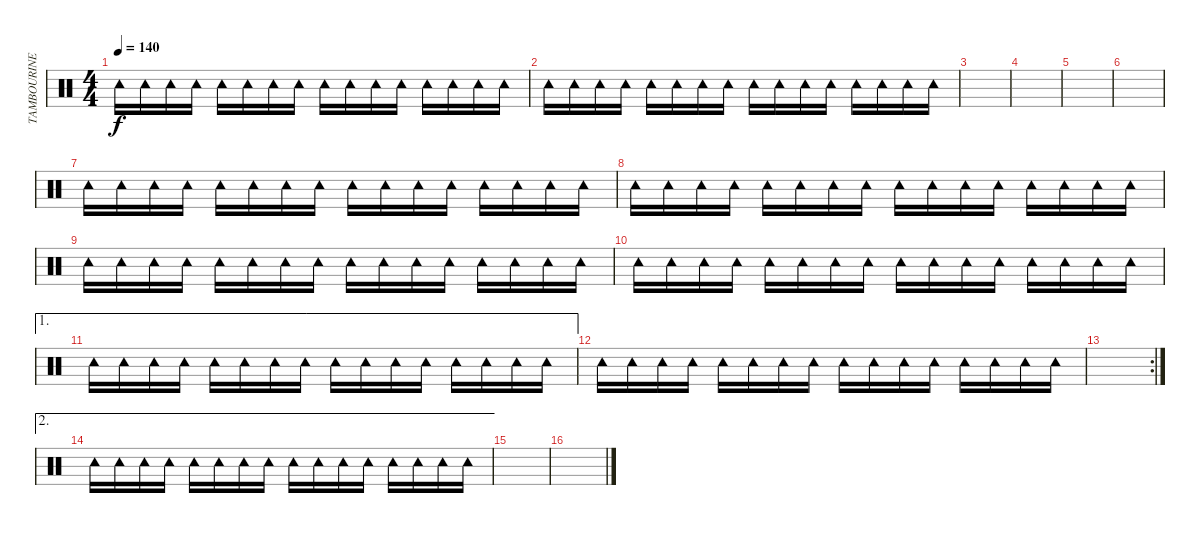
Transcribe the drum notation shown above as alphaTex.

\track ("TAMBOURINE" "TAMBOURINE") {instrument percussion}
\staff {score}
\articulation defaults
\ts (4 4)
\tempo 140
\clef neutral
\ks c "Tambourine (hit)".16{dy f} "Tambourine (hit)".16 "Tambourine (hit)".16 "Tambourine (hit)".16 "Tambourine (hit)".16 "Tambourine (hit)".16 "Tambourine (hit)".16 "Tambourine (hit)".16 "Tambourine (hit)".16 "Tambourine (hit)".16 "Tambourine (hit)".16 "Tambourine (hit)".16 "Tambourine (hit)".16 "Tambourine (hit)".16 "Tambourine (hit)".16 "Tambourine (hit)".16
|
"Tambourine (hit)".16 "Tambourine (hit)".16 "Tambourine (hit)".16 "Tambourine (hit)".16 "Tambourine (hit)".16 "Tambourine (hit)".16 "Tambourine (hit)".16 "Tambourine (hit)".16 "Tambourine (hit)".16 "Tambourine (hit)".16 "Tambourine (hit)".16 "Tambourine (hit)".16 "Tambourine (hit)".16 "Tambourine (hit)".16 "Tambourine (hit)".16 "Tambourine (hit)".16 |
|
|
|
|
"Tambourine (hit)".16 "Tambourine (hit)".16 "Tambourine (hit)".16 "Tambourine (hit)".16 "Tambourine (hit)".16 "Tambourine (hit)".16 "Tambourine (hit)".16 "Tambourine (hit)".16 "Tambourine (hit)".16 "Tambourine (hit)".16 "Tambourine (hit)".16 "Tambourine (hit)".16 "Tambourine (hit)".16 "Tambourine (hit)".16 "Tambourine (hit)".16 "Tambourine (hit)".16 |
"Tambourine (hit)".16 "Tambourine (hit)".16 "Tambourine (hit)".16 "Tambourine (hit)".16 "Tambourine (hit)".16 "Tambourine (hit)".16 "Tambourine (hit)".16 "Tambourine (hit)".16 "Tambourine (hit)".16 "Tambourine (hit)".16 "Tambourine (hit)".16 "Tambourine (hit)".16 "Tambourine (hit)".16 "Tambourine (hit)".16 "Tambourine (hit)".16 "Tambourine (hit)".16 |
"Tambourine (hit)".16 "Tambourine (hit)".16 "Tambourine (hit)".16 "Tambourine (hit)".16 "Tambourine (hit)".16 "Tambourine (hit)".16 "Tambourine (hit)".16 "Tambourine (hit)".16 "Tambourine (hit)".16 "Tambourine (hit)".16 "Tambourine (hit)".16 "Tambourine (hit)".16 "Tambourine (hit)".16 "Tambourine (hit)".16 "Tambourine (hit)".16 "Tambourine (hit)".16 |
"Tambourine (hit)".16 "Tambourine (hit)".16 "Tambourine (hit)".16 "Tambourine (hit)".16 "Tambourine (hit)".16 "Tambourine (hit)".16 "Tambourine (hit)".16 "Tambourine (hit)".16 "Tambourine (hit)".16 "Tambourine (hit)".16 "Tambourine (hit)".16 "Tambourine (hit)".16 "Tambourine (hit)".16 "Tambourine (hit)".16 "Tambourine (hit)".16 "Tambourine (hit)".16 |
\ae 1 "Tambourine (hit)".16 "Tambourine (hit)".16 "Tambourine (hit)".16 "Tambourine (hit)".16 "Tambourine (hit)".16 "Tambourine (hit)".16 "Tambourine (hit)".16 "Tambourine (hit)".16 "Tambourine (hit)".16 "Tambourine (hit)".16 "Tambourine (hit)".16 "Tambourine (hit)".16 "Tambourine (hit)".16 "Tambourine (hit)".16 "Tambourine (hit)".16 "Tambourine (hit)".16
|
"Tambourine (hit)".16 "Tambourine (hit)".16 "Tambourine (hit)".16 "Tambourine (hit)".16 "Tambourine (hit)".16 "Tambourine (hit)".16 "Tambourine (hit)".16 "Tambourine (hit)".16 "Tambourine (hit)".16 "Tambourine (hit)".16 "Tambourine (hit)".16 "Tambourine (hit)".16 "Tambourine (hit)".16 "Tambourine (hit)".16 "Tambourine (hit)".16 "Tambourine (hit)".16 |
\rc 2
|
\ae 2 "Tambourine (hit)".16 "Tambourine (hit)".16 "Tambourine (hit)".16 "Tambourine (hit)".16 "Tambourine (hit)".16 "Tambourine (hit)".16 "Tambourine (hit)".16 "Tambourine (hit)".16 "Tambourine (hit)".16 "Tambourine (hit)".16 "Tambourine (hit)".16 "Tambourine (hit)".16 "Tambourine (hit)".16 "Tambourine (hit)".16 "Tambourine (hit)".16 "Tambourine (hit)".16
|
|
\ks aminor
